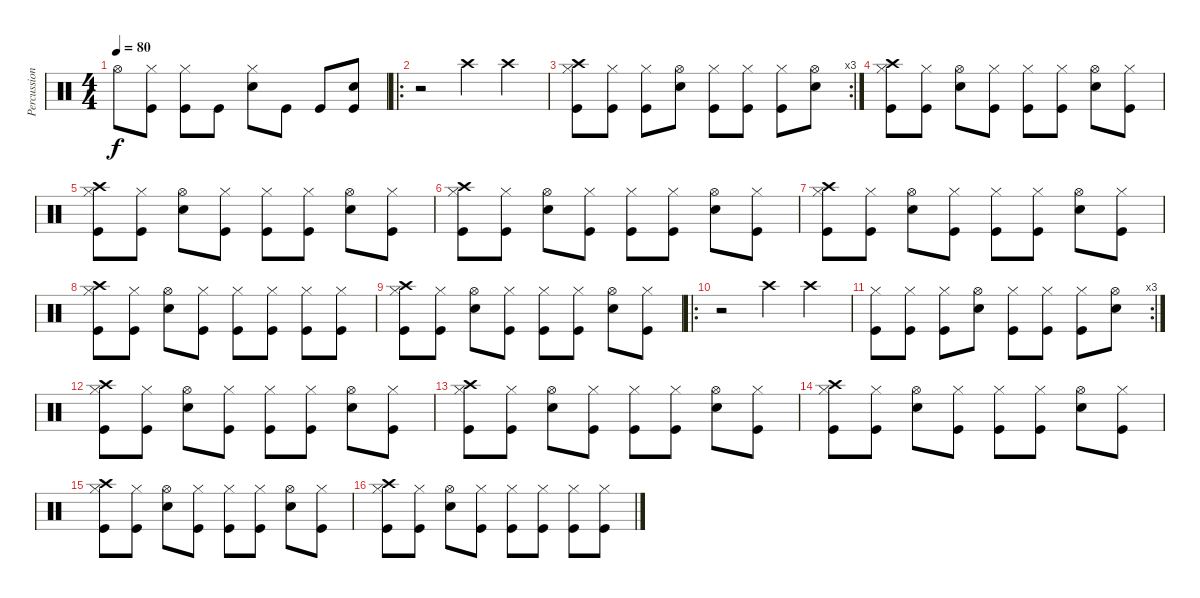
\track ("Percussion" "Percussion") {instrument percussion}
\staff {score}
\articulation defaults
\ts (4 4)
\tempo 80
\clef neutral
\ks c "Hi-Hat (open)".8{dy f}
("Hi-Hat (closed)" "Kick (hit)").8 ("Hi-Hat (closed)" "Kick (hit)").8 "Kick (hit)".8 ("Hi-Hat (closed)" "Snare (hit) 2").8 "Kick (hit)".8 "Kick (hit)".8 ("Snare (hit) 2" "Kick (hit)").8 |
\ro
r.2 "Crash high (hit)".4 "Crash high (hit)".4 |
\rc 3
("Crash high (hit)" "Hi-Hat (closed)" "Kick (hit)").8 ("Hi-Hat (closed)" "Kick (hit)").8 ("Hi-Hat (closed)" "Kick (hit)").8 ("Hi-Hat (open)" "Snare (hit) 2").8 ("Hi-Hat (closed)" "Kick (hit)").8 ("Hi-Hat (closed)" "Kick (hit)").8 ("Hi-Hat (closed)" "Kick (hit)").8 ("Hi-Hat (open)" "Snare (hit) 2").8 |
("Hi-Hat (closed)" "Crash high (hit)" "Kick (hit)").8 ("Hi-Hat (closed)" "Kick (hit)").8 ("Hi-Hat (open)" "Snare (hit) 2").8 ("Hi-Hat (closed)" "Kick (hit)").8 ("Hi-Hat (closed)" "Kick (hit)").8 ("Hi-Hat (closed)" "Kick (hit)").8 ("Hi-Hat (open)" "Snare (hit) 2").8 ("Hi-Hat (closed)" "Kick (hit)").8 |
("Crash high (hit)" "Hi-Hat (closed)" "Kick (hit)").8 ("Hi-Hat (closed)" "Kick (hit)").8 ("Hi-Hat (open)" "Snare (hit) 2").8 ("Hi-Hat (closed)" "Kick (hit)").8 ("Hi-Hat (closed)" "Kick (hit)").8 ("Hi-Hat (closed)" "Kick (hit)").8 ("Hi-Hat (open)" "Snare (hit) 2").8 ("Hi-Hat (closed)" "Kick (hit)").8 |
("Crash high (hit)" "Hi-Hat (closed)" "Kick (hit)").8 ("Hi-Hat (closed)" "Kick (hit)").8 ("Hi-Hat (open)" "Snare (hit) 2").8 ("Hi-Hat (closed)" "Kick (hit)").8 ("Hi-Hat (closed)" "Kick (hit)").8 ("Hi-Hat (closed)" "Kick (hit)").8 ("Hi-Hat (open)" "Snare (hit) 2").8 ("Hi-Hat (closed)" "Kick (hit)").8 |
("Crash high (hit)" "Hi-Hat (closed)" "Kick (hit)").8 ("Hi-Hat (closed)" "Kick (hit)").8 ("Hi-Hat (open)" "Snare (hit) 2").8 ("Hi-Hat (closed)" "Kick (hit)").8 ("Hi-Hat (closed)" "Kick (hit)").8 ("Hi-Hat (closed)" "Kick (hit)").8 ("Hi-Hat (open)" "Snare (hit) 2").8 ("Hi-Hat (closed)" "Kick (hit)").8 |
("Crash high (hit)" "Hi-Hat (closed)" "Kick (hit)").8 ("Hi-Hat (closed)" "Kick (hit)").8 ("Hi-Hat (open)" "Snare (hit) 2").8 ("Hi-Hat (closed)" "Kick (hit)").8 ("Hi-Hat (closed)" "Kick (hit)").8 ("Hi-Hat (closed)" "Kick (hit)").8 ("Hi-Hat (closed)" "Kick (hit)").8 ("Hi-Hat (closed)" "Kick (hit)").8 |
("Crash high (hit)" "Hi-Hat (closed)" "Kick (hit)").8 ("Hi-Hat (closed)" "Kick (hit)").8 ("Hi-Hat (open)" "Snare (hit) 2").8 ("Hi-Hat (closed)" "Kick (hit)").8 ("Hi-Hat (closed)" "Kick (hit)").8 ("Hi-Hat (closed)" "Kick (hit)").8 ("Hi-Hat (open)" "Snare (hit) 2").8 ("Hi-Hat (closed)" "Kick (hit)").8 |
\ro
r.2 "Crash high (hit)".4 "Crash high (hit)".4 |
\rc 3
("Hi-Hat (closed)" "Kick (hit)").8 ("Hi-Hat (closed)" "Kick (hit)").8 ("Hi-Hat (closed)" "Kick (hit)").8 ("Hi-Hat (open)" "Snare (hit) 2").8 ("Hi-Hat (closed)" "Kick (hit)").8 ("Hi-Hat (closed)" "Kick (hit)").8 ("Hi-Hat (closed)" "Kick (hit)").8 ("Hi-Hat (open)" "Snare (hit) 2").8 |
("Crash high (hit)" "Hi-Hat (closed)" "Kick (hit)").8 ("Hi-Hat (closed)" "Kick (hit)").8 ("Hi-Hat (open)" "Snare (hit) 2").8 ("Hi-Hat (closed)" "Kick (hit)").8 ("Hi-Hat (closed)" "Kick (hit)").8 ("Hi-Hat (closed)" "Kick (hit)").8 ("Hi-Hat (open)" "Snare (hit) 2").8 ("Hi-Hat (closed)" "Kick (hit)").8 |
("Crash high (hit)" "Hi-Hat (closed)" "Kick (hit)").8 ("Hi-Hat (closed)" "Kick (hit)").8 ("Hi-Hat (open)" "Snare (hit) 2").8 ("Hi-Hat (closed)" "Kick (hit)").8 ("Hi-Hat (closed)" "Kick (hit)").8 ("Hi-Hat (closed)" "Kick (hit)").8 ("Hi-Hat (open)" "Snare (hit) 2").8 ("Hi-Hat (closed)" "Kick (hit)").8 |
("Crash high (hit)" "Hi-Hat (closed)" "Kick (hit)").8 ("Hi-Hat (closed)" "Kick (hit)").8 ("Hi-Hat (open)" "Snare (hit) 2").8 ("Hi-Hat (closed)" "Kick (hit)").8 ("Hi-Hat (closed)" "Kick (hit)").8 ("Hi-Hat (closed)" "Kick (hit)").8 ("Hi-Hat (open)" "Snare (hit) 2").8 ("Hi-Hat (closed)" "Kick (hit)").8 |
("Crash high (hit)" "Hi-Hat (closed)" "Kick (hit)").8 ("Hi-Hat (closed)" "Kick (hit)").8 ("Hi-Hat (open)" "Snare (hit) 2").8 ("Hi-Hat (closed)" "Kick (hit)").8 ("Hi-Hat (closed)" "Kick (hit)").8 ("Hi-Hat (closed)" "Kick (hit)").8 ("Hi-Hat (open)" "Snare (hit) 2").8 ("Hi-Hat (closed)" "Kick (hit)").8 |
("Crash high (hit)" "Hi-Hat (closed)" "Kick (hit)").8 ("Hi-Hat (closed)" "Kick (hit)").8 ("Hi-Hat (open)" "Snare (hit) 2").8 ("Hi-Hat (closed)" "Kick (hit)").8 ("Hi-Hat (closed)" "Kick (hit)").8 ("Hi-Hat (closed)" "Kick (hit)").8 ("Hi-Hat (closed)" "Kick (hit)").8 ("Hi-Hat (closed)" "Kick (hit)").8
